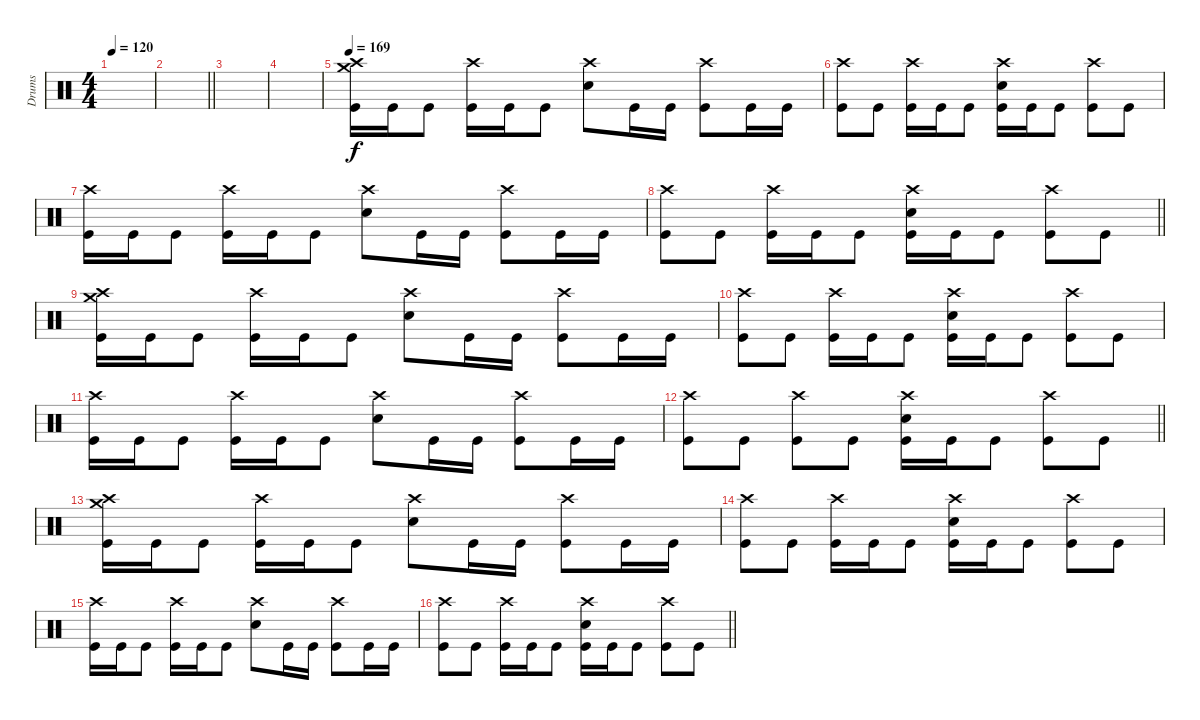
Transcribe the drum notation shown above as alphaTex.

\track ("Drums" "Drums") {instrument percussion}
\staff
\articulation defaults
\ts (4 4)
\tempo 120
\clef neutral
\ks c
|
\barLineRight lightlight
|
|
|
\tempo 169
("Crash high (hit)" "Crash medium (hit)" "Kick (hit)").16{dy f} "Kick (hit)".16 "Kick (hit)".8 ("Crash high (hit)" "Kick (hit)").16 "Kick (hit)".16 "Kick (hit)".8 ("Crash high (hit)" "Electric Snare (hit)").8 "Kick (hit)".16 "Kick (hit)".16 ("Crash high (hit)" "Kick (hit)").8 "Kick (hit)".16 "Kick (hit)".16 |
("Crash high (hit)" "Kick (hit)").8 "Kick (hit)".8 ("Crash high (hit)" "Kick (hit)").16 "Kick (hit)".16 "Kick (hit)".8 ("Crash high (hit)" "Electric Snare (hit)" "Kick (hit)").16 "Kick (hit)".16 "Kick (hit)".8 ("Crash high (hit)" "Kick (hit)").8 "Kick (hit)".8 |
("Crash high (hit)" "Kick (hit)").16 "Kick (hit)".16 "Kick (hit)".8 ("Crash high (hit)" "Kick (hit)").16 "Kick (hit)".16 "Kick (hit)".8 ("Crash high (hit)" "Electric Snare (hit)").8 "Kick (hit)".16 "Kick (hit)".16 ("Crash high (hit)" "Kick (hit)").8 "Kick (hit)".16 "Kick (hit)".16 |
\barLineRight lightlight
("Crash high (hit)" "Kick (hit)").8 "Kick (hit)".8 ("Crash high (hit)" "Kick (hit)").16 "Kick (hit)".16 "Kick (hit)".8 ("Crash high (hit)" "Electric Snare (hit)" "Kick (hit)").16 "Kick (hit)".16 "Kick (hit)".8 ("Crash high (hit)" "Kick (hit)").8 "Kick (hit)".8 |
("Crash high (hit)" "Crash medium (hit)" "Kick (hit)").16 "Kick (hit)".16 "Kick (hit)".8 ("Crash high (hit)" "Kick (hit)").16 "Kick (hit)".16 "Kick (hit)".8 ("Crash high (hit)" "Electric Snare (hit)").8 "Kick (hit)".16 "Kick (hit)".16 ("Crash high (hit)" "Kick (hit)").8 "Kick (hit)".16 "Kick (hit)".16 |
("Crash high (hit)" "Kick (hit)").8 "Kick (hit)".8 ("Crash high (hit)" "Kick (hit)").16 "Kick (hit)".16 "Kick (hit)".8 ("Crash high (hit)" "Electric Snare (hit)" "Kick (hit)").16 "Kick (hit)".16 "Kick (hit)".8 ("Crash high (hit)" "Kick (hit)").8 "Kick (hit)".8 |
("Crash high (hit)" "Kick (hit)").16 "Kick (hit)".16 "Kick (hit)".8 ("Crash high (hit)" "Kick (hit)").16 "Kick (hit)".16 "Kick (hit)".8 ("Crash high (hit)" "Electric Snare (hit)").8 "Kick (hit)".16 "Kick (hit)".16 ("Crash high (hit)" "Kick (hit)").8 "Kick (hit)".16 "Kick (hit)".16 |
\barLineRight lightlight
("Crash high (hit)" "Kick (hit)").8 "Kick (hit)".8 ("Crash high (hit)" "Kick (hit)").8 "Kick (hit)".8 ("Crash high (hit)" "Electric Snare (hit)" "Kick (hit)").16 "Kick (hit)".16 "Kick (hit)".8 ("Crash high (hit)" "Kick (hit)").8 "Kick (hit)".8 |
("Crash high (hit)" "Crash medium (hit)" "Kick (hit)").16 "Kick (hit)".16 "Kick (hit)".8 ("Crash high (hit)" "Kick (hit)").16 "Kick (hit)".16 "Kick (hit)".8 ("Crash high (hit)" "Electric Snare (hit)").8 "Kick (hit)".16 "Kick (hit)".16 ("Crash high (hit)" "Kick (hit)").8 "Kick (hit)".16 "Kick (hit)".16 |
("Crash high (hit)" "Kick (hit)").8 "Kick (hit)".8 ("Crash high (hit)" "Kick (hit)").16 "Kick (hit)".16 "Kick (hit)".8 ("Crash high (hit)" "Electric Snare (hit)" "Kick (hit)").16 "Kick (hit)".16 "Kick (hit)".8 ("Crash high (hit)" "Kick (hit)").8 "Kick (hit)".8 |
("Crash high (hit)" "Kick (hit)").16 "Kick (hit)".16 "Kick (hit)".8 ("Crash high (hit)" "Kick (hit)").16 "Kick (hit)".16 "Kick (hit)".8 ("Crash high (hit)" "Electric Snare (hit)").8 "Kick (hit)".16 "Kick (hit)".16 ("Crash high (hit)" "Kick (hit)").8 "Kick (hit)".16 "Kick (hit)".16 |
\barLineRight lightlight
("Crash high (hit)" "Kick (hit)").8 "Kick (hit)".8 ("Crash high (hit)" "Kick (hit)").16 "Kick (hit)".16 "Kick (hit)".8 ("Crash high (hit)" "Electric Snare (hit)" "Kick (hit)").16 "Kick (hit)".16 "Kick (hit)".8 ("Crash high (hit)" "Kick (hit)").8 "Kick (hit)".8
